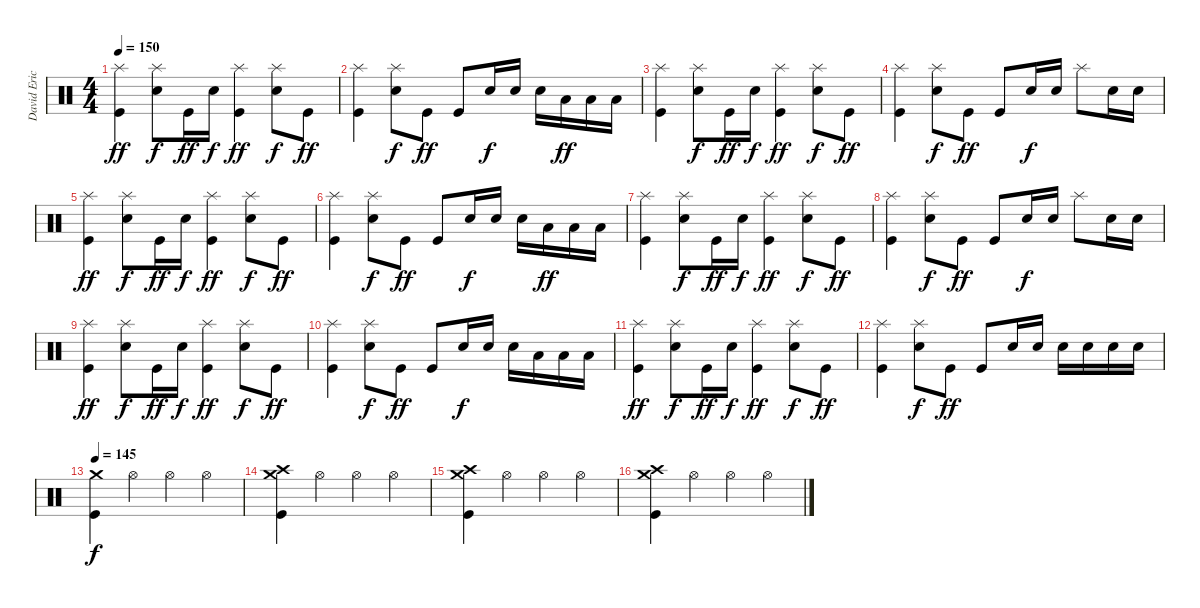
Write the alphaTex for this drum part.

\track ("David Eric Grohl" "David Eric") {instrument percussion}
\staff {score}
\articulation defaults
\ts (4 4)
\tempo 150
\clef neutral
\ks c
("Splash (hit)" "Kick (hit)").4{dy ff} ("Splash (hit)" "Snare (hit) 2").8{dy f} "Kick (hit)".16{dy ff} "Snare (hit) 2".16{dy f} ("Splash (hit)" "Kick (hit)").4{dy ff} ("Splash (hit)" "Snare (hit) 2").8{dy f} "Kick (hit)".8{dy ff} |
("Splash (hit)" "Kick (hit)").4 ("Splash (hit)" "Snare (hit) 2").8{dy f} "Kick (hit)".8{dy ff} "Kick (hit)".8 "Snare (hit) 2".16{dy f} "Snare (hit) 2".16 "Snare (hit) 2".16 "Low Tom (hit)".16{dy ff} "Low Tom (hit)".16 "Low Tom (hit)".16 |
("Splash (hit)" "Kick (hit)").4 ("Splash (hit)" "Snare (hit) 2").8{dy f} "Kick (hit)".16{dy ff} "Snare (hit) 2".16{dy f} ("Splash (hit)" "Kick (hit)").4{dy ff} ("Splash (hit)" "Snare (hit) 2").8{dy f} "Kick (hit)".8{dy ff} |
("Splash (hit)" "Kick (hit)").4 ("Splash (hit)" "Snare (hit) 2").8{dy f} "Kick (hit)".8{dy ff} "Kick (hit)".8 "Snare (hit) 2".16{dy f} "Snare (hit) 2".16 "Splash (hit)".8 "Snare (hit) 2".16 "Snare (hit) 2".16 |
("Splash (hit)" "Kick (hit)").4{dy ff} ("Splash (hit)" "Snare (hit) 2").8{dy f} "Kick (hit)".16{dy ff} "Snare (hit) 2".16{dy f} ("Splash (hit)" "Kick (hit)").4{dy ff} ("Splash (hit)" "Snare (hit) 2").8{dy f} "Kick (hit)".8{dy ff} |
("Splash (hit)" "Kick (hit)").4 ("Splash (hit)" "Snare (hit) 2").8{dy f} "Kick (hit)".8{dy ff} "Kick (hit)".8 "Snare (hit) 2".16{dy f} "Snare (hit) 2".16 "Snare (hit) 2".16 "Low Tom (hit)".16{dy ff} "Low Tom (hit)".16 "Low Tom (hit)".16 |
("Splash (hit)" "Kick (hit)").4 ("Splash (hit)" "Snare (hit) 2").8{dy f} "Kick (hit)".16{dy ff} "Snare (hit) 2".16{dy f} ("Splash (hit)" "Kick (hit)").4{dy ff} ("Splash (hit)" "Snare (hit) 2").8{dy f} "Kick (hit)".8{dy ff} |
("Splash (hit)" "Kick (hit)").4 ("Splash (hit)" "Snare (hit) 2").8{dy f} "Kick (hit)".8{dy ff} "Kick (hit)".8 "Snare (hit) 2".16{dy f} "Snare (hit) 2".16 "Splash (hit)".8 "Snare (hit) 2".16 "Snare (hit) 2".16 |
("Splash (hit)" "Kick (hit)").4{dy ff} ("Splash (hit)" "Snare (hit) 2").8{dy f} "Kick (hit)".16{dy ff} "Snare (hit) 2".16{dy f} ("Splash (hit)" "Kick (hit)").4{dy ff} ("Splash (hit)" "Snare (hit) 2").8{dy f} "Kick (hit)".8{dy ff} |
("Splash (hit)" "Kick (hit)").4 ("Splash (hit)" "Snare (hit) 2").8{dy f} "Kick (hit)".8{dy ff} "Kick (hit)".8 "Snare (hit) 2".16{dy f} "Snare (hit) 2".16 "Snare (hit) 2".16 "Low Tom (hit)".16 "Low Tom (hit)".16 "Low Tom (hit)".16 |
("Splash (hit)" "Kick (hit)").4{dy ff} ("Splash (hit)" "Snare (hit) 2").8{dy f} "Kick (hit)".16{dy ff} "Snare (hit) 2".16{dy f} ("Splash (hit)" "Kick (hit)").4{dy ff} ("Splash (hit)" "Snare (hit) 2").8{dy f} "Kick (hit)".8{dy ff} |
("Splash (hit)" "Kick (hit)").4 ("Splash (hit)" "Snare (hit) 2").8{dy f} "Kick (hit)".8{dy ff} "Kick (hit)".8 "Snare (hit) 2".16 "Snare (hit) 2".16 "Snare (hit) 2".16 "Snare (hit) 2".16 "Snare (hit) 2".16 "Snare (hit) 2".16 |
\tempo 145
("Crash medium (hit)" "Kick (hit)").4{dy f} "Hi-Hat (open)".4 "Hi-Hat (open)".4 "Hi-Hat (open)".4 |
("Crash medium (hit)" "Crash high (hit)" "Kick (hit)").4 "Hi-Hat (open)".4 "Hi-Hat (open)".4 "Hi-Hat (open)".4 |
("Crash medium (hit)" "Crash high (hit)" "Kick (hit)").4 "Hi-Hat (open)".4 "Hi-Hat (open)".4 "Hi-Hat (open)".4 |
("Crash medium (hit)" "Crash high (hit)" "Kick (hit)").4 "Hi-Hat (open)".4 "Hi-Hat (open)".4 "Hi-Hat (open)".4
